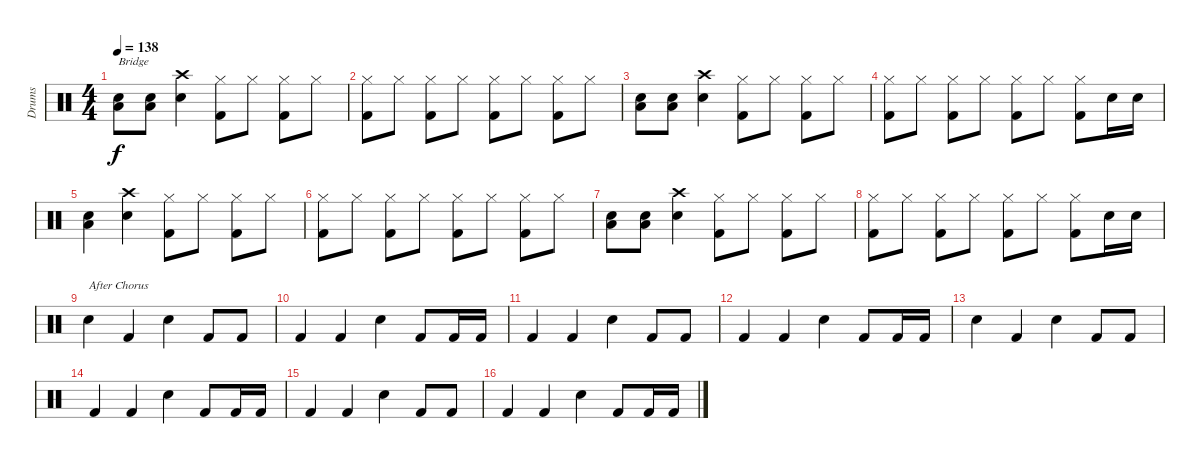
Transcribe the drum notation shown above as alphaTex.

\track ("Drums" "Drums") {instrument percussion}
\staff {score}
\articulation defaults
\ts (4 4)
\tempo 138
\clef neutral
\ks c
("Low Tom (hit)" "Electric Snare (hit)").8{txt "Bridge" dy f} ("Low Tom (hit)" "Electric Snare (hit)").8 ("Electric Snare (hit)" "Crash high (hit)").4 ("Hi-Hat (closed)" "Kick (hit) 2").8 "Hi-Hat (closed)".8 ("Hi-Hat (closed)" "Kick (hit) 2").8 "Hi-Hat (closed)".8 |
("Hi-Hat (closed)" "Kick (hit) 2").8 "Hi-Hat (closed)".8 ("Hi-Hat (closed)" "Kick (hit) 2").8 "Hi-Hat (closed)".8 ("Hi-Hat (closed)" "Kick (hit) 2").8 "Hi-Hat (closed)".8 ("Hi-Hat (closed)" "Kick (hit) 2").8 "Hi-Hat (closed)".8 |
("Low Tom (hit)" "Electric Snare (hit)").8 ("Low Tom (hit)" "Electric Snare (hit)").8 ("Electric Snare (hit)" "Crash high (hit)").4 ("Hi-Hat (closed)" "Kick (hit) 2").8 "Hi-Hat (closed)".8 ("Hi-Hat (closed)" "Kick (hit) 2").8 "Hi-Hat (closed)".8 |
("Hi-Hat (closed)" "Kick (hit) 2").8 "Hi-Hat (closed)".8 ("Hi-Hat (closed)" "Kick (hit) 2").8 "Hi-Hat (closed)".8 ("Hi-Hat (closed)" "Kick (hit) 2").8 "Hi-Hat (closed)".8 ("Hi-Hat (closed)" "Kick (hit) 2").8 "Electric Snare (hit)".16 "Electric Snare (hit)".16 |
("Low Tom (hit)" "Electric Snare (hit)").4 ("Electric Snare (hit)" "Crash high (hit)").4 ("Hi-Hat (closed)" "Kick (hit) 2").8 "Hi-Hat (closed)".8 ("Hi-Hat (closed)" "Kick (hit) 2").8 "Hi-Hat (closed)".8 |
("Hi-Hat (closed)" "Kick (hit) 2").8 "Hi-Hat (closed)".8 ("Hi-Hat (closed)" "Kick (hit) 2").8 "Hi-Hat (closed)".8 ("Hi-Hat (closed)" "Kick (hit) 2").8 "Hi-Hat (closed)".8 ("Hi-Hat (closed)" "Kick (hit) 2").8 "Hi-Hat (closed)".8 |
("Low Tom (hit)" "Electric Snare (hit)").8 ("Low Tom (hit)" "Electric Snare (hit)").8 ("Electric Snare (hit)" "Crash high (hit)").4 ("Hi-Hat (closed)" "Kick (hit) 2").8 "Hi-Hat (closed)".8 ("Hi-Hat (closed)" "Kick (hit) 2").8 "Hi-Hat (closed)".8 |
("Hi-Hat (closed)" "Kick (hit) 2").8 "Hi-Hat (closed)".8 ("Hi-Hat (closed)" "Kick (hit) 2").8 "Hi-Hat (closed)".8 ("Hi-Hat (closed)" "Kick (hit) 2").8 "Hi-Hat (closed)".8 ("Hi-Hat (closed)" "Kick (hit) 2").8 "Electric Snare (hit)".16 "Snare (hit) 2".16 |
"Snare (hit) 2".4{txt "After Chorus"} "Kick (hit) 2".4 "Snare (hit) 2".4 "Kick (hit) 2".8 "Kick (hit) 2".8 |
"Kick (hit) 2".4 "Kick (hit) 2".4 "Snare (hit) 2".4 "Kick (hit) 2".8 "Kick (hit) 2".16 "Kick (hit) 2".16 |
"Kick (hit) 2".4 "Kick (hit) 2".4 "Snare (hit) 2".4 "Kick (hit) 2".8 "Kick (hit) 2".8 |
"Kick (hit) 2".4 "Kick (hit) 2".4 "Snare (hit) 2".4 "Kick (hit) 2".8 "Kick (hit) 2".16 "Kick (hit) 2".16 |
"Snare (hit) 2".4 "Kick (hit) 2".4 "Snare (hit) 2".4 "Kick (hit) 2".8 "Kick (hit) 2".8 |
"Kick (hit) 2".4 "Kick (hit) 2".4 "Snare (hit) 2".4 "Kick (hit) 2".8 "Kick (hit) 2".16 "Kick (hit) 2".16 |
"Kick (hit) 2".4 "Kick (hit) 2".4 "Snare (hit) 2".4 "Kick (hit) 2".8 "Kick (hit) 2".8 |
"Kick (hit) 2".4 "Kick (hit) 2".4 "Snare (hit) 2".4 "Kick (hit) 2".8 "Kick (hit) 2".16 "Kick (hit) 2".16
